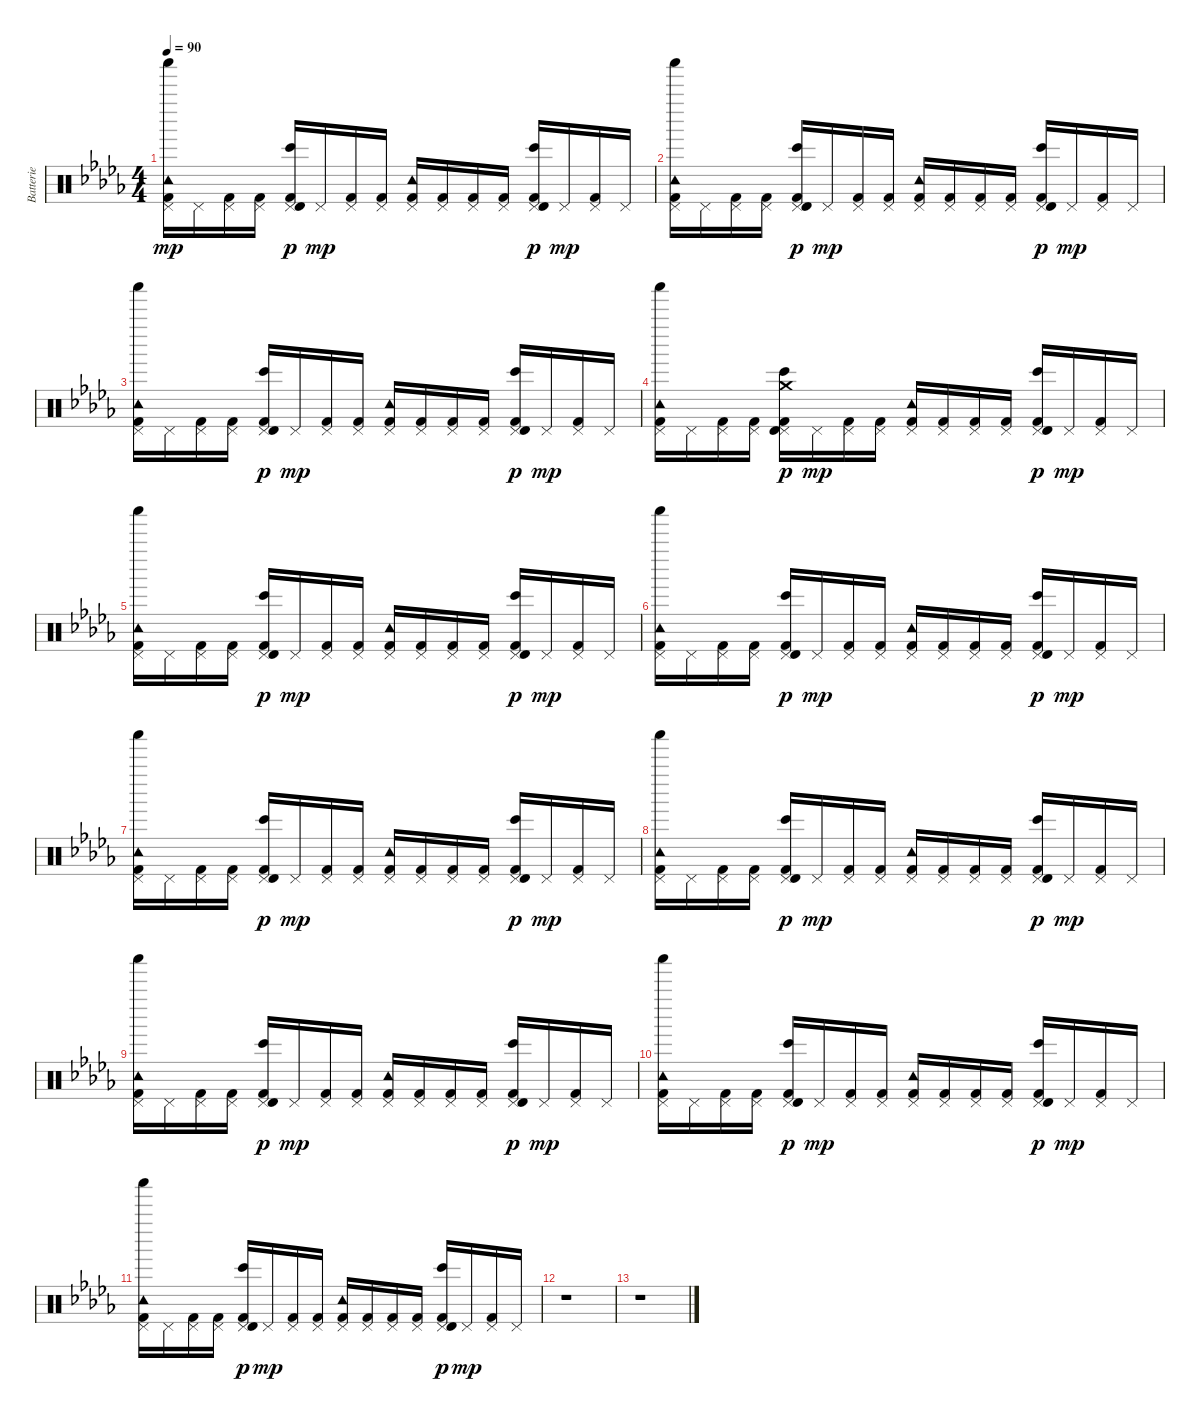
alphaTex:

\track ("Batterie" "Batterie") {instrument percussion}
\staff {score}
\articulation defaults
\ts (4 4)
\tempo 90
\clef neutral
\ks db
("Shaker (hit)" "Tambourine (hit)" "Pedal Hi-Hat (hit)" "Kick (hit) 2").16{dy mp} "Pedal Hi-Hat (hit)".16 ("Pedal Hi-Hat (hit)" "Kick (hit) 2").16 ("Pedal Hi-Hat (hit)" "Kick (hit) 2").16 ("Pedal Hi-Hat (hit)" "Bongo High (hit)" "Timbale high (hit)" "Kick (hit) 2").16{dy p} "Pedal Hi-Hat (hit)".16{dy mp} ("Pedal Hi-Hat (hit)" "Kick (hit) 2").16 ("Pedal Hi-Hat (hit)" "Kick (hit) 2").16 ("Tambourine (hit)" "Pedal Hi-Hat (hit)" "Kick (hit) 2").16 ("Pedal Hi-Hat (hit)" "Kick (hit) 2").16 ("Pedal Hi-Hat (hit)" "Kick (hit) 2").16 ("Pedal Hi-Hat (hit)" "Kick (hit) 2").16 ("Pedal Hi-Hat (hit)" "Bongo High (hit)" "Timbale high (hit)" "Kick (hit) 2").16{dy p} "Pedal Hi-Hat (hit)".16{dy mp} ("Pedal Hi-Hat (hit)" "Kick (hit) 2").16 "Pedal Hi-Hat (hit)".16 |
("Shaker (hit)" "Tambourine (hit)" "Pedal Hi-Hat (hit)" "Kick (hit) 2").16 "Pedal Hi-Hat (hit)".16 ("Pedal Hi-Hat (hit)" "Kick (hit) 2").16 ("Pedal Hi-Hat (hit)" "Kick (hit) 2").16 ("Pedal Hi-Hat (hit)" "Bongo High (hit)" "Timbale high (hit)" "Kick (hit) 2").16{dy p} "Pedal Hi-Hat (hit)".16{dy mp} ("Pedal Hi-Hat (hit)" "Kick (hit) 2").16 ("Pedal Hi-Hat (hit)" "Kick (hit) 2").16 ("Tambourine (hit)" "Pedal Hi-Hat (hit)" "Kick (hit) 2").16 ("Pedal Hi-Hat (hit)" "Kick (hit) 2").16 ("Pedal Hi-Hat (hit)" "Kick (hit) 2").16 ("Pedal Hi-Hat (hit)" "Kick (hit) 2").16 ("Pedal Hi-Hat (hit)" "Bongo High (hit)" "Timbale high (hit)" "Kick (hit) 2").16{dy p} "Pedal Hi-Hat (hit)".16{dy mp} ("Pedal Hi-Hat (hit)" "Kick (hit) 2").16 "Pedal Hi-Hat (hit)".16 |
("Shaker (hit)" "Tambourine (hit)" "Pedal Hi-Hat (hit)" "Kick (hit) 2").16 "Pedal Hi-Hat (hit)".16 ("Pedal Hi-Hat (hit)" "Kick (hit) 2").16 ("Pedal Hi-Hat (hit)" "Kick (hit) 2").16 ("Pedal Hi-Hat (hit)" "Bongo High (hit)" "Timbale high (hit)" "Kick (hit) 2").16{dy p} "Pedal Hi-Hat (hit)".16{dy mp} ("Pedal Hi-Hat (hit)" "Kick (hit) 2").16 ("Pedal Hi-Hat (hit)" "Kick (hit) 2").16 ("Tambourine (hit)" "Pedal Hi-Hat (hit)" "Kick (hit) 2").16 ("Pedal Hi-Hat (hit)" "Kick (hit) 2").16 ("Pedal Hi-Hat (hit)" "Kick (hit) 2").16 ("Pedal Hi-Hat (hit)" "Kick (hit) 2").16 ("Pedal Hi-Hat (hit)" "Bongo High (hit)" "Timbale high (hit)" "Kick (hit) 2").16{dy p} "Pedal Hi-Hat (hit)".16{dy mp} ("Pedal Hi-Hat (hit)" "Kick (hit) 2").16 "Pedal Hi-Hat (hit)".16 |
("Shaker (hit)" "Tambourine (hit)" "Pedal Hi-Hat (hit)" "Kick (hit) 2").16 "Pedal Hi-Hat (hit)".16 ("Pedal Hi-Hat (hit)" "Kick (hit) 2").16 ("Pedal Hi-Hat (hit)" "Kick (hit) 2").16 ("Crash medium (hit)" "Pedal Hi-Hat (hit)" "Bongo High (hit)" "Timbale high (hit)" "Kick (hit) 2").16{dy p} "Pedal Hi-Hat (hit)".16{dy mp} ("Pedal Hi-Hat (hit)" "Kick (hit) 2").16 ("Pedal Hi-Hat (hit)" "Kick (hit) 2").16 ("Tambourine (hit)" "Pedal Hi-Hat (hit)" "Kick (hit) 2").16 ("Pedal Hi-Hat (hit)" "Kick (hit) 2").16 ("Pedal Hi-Hat (hit)" "Kick (hit) 2").16 ("Pedal Hi-Hat (hit)" "Kick (hit) 2").16 ("Pedal Hi-Hat (hit)" "Bongo High (hit)" "Timbale high (hit)" "Kick (hit) 2").16{dy p} "Pedal Hi-Hat (hit)".16{dy mp} ("Pedal Hi-Hat (hit)" "Kick (hit) 2").16 "Pedal Hi-Hat (hit)".16 |
("Shaker (hit)" "Tambourine (hit)" "Pedal Hi-Hat (hit)" "Kick (hit) 2").16 "Pedal Hi-Hat (hit)".16 ("Pedal Hi-Hat (hit)" "Kick (hit) 2").16 ("Pedal Hi-Hat (hit)" "Kick (hit) 2").16 ("Pedal Hi-Hat (hit)" "Bongo High (hit)" "Timbale high (hit)" "Kick (hit) 2").16{dy p} "Pedal Hi-Hat (hit)".16{dy mp} ("Pedal Hi-Hat (hit)" "Kick (hit) 2").16 ("Pedal Hi-Hat (hit)" "Kick (hit) 2").16 ("Tambourine (hit)" "Pedal Hi-Hat (hit)" "Kick (hit) 2").16 ("Pedal Hi-Hat (hit)" "Kick (hit) 2").16 ("Pedal Hi-Hat (hit)" "Kick (hit) 2").16 ("Pedal Hi-Hat (hit)" "Kick (hit) 2").16 ("Pedal Hi-Hat (hit)" "Bongo High (hit)" "Timbale high (hit)" "Kick (hit) 2").16{dy p} "Pedal Hi-Hat (hit)".16{dy mp} ("Pedal Hi-Hat (hit)" "Kick (hit) 2").16 "Pedal Hi-Hat (hit)".16 |
("Shaker (hit)" "Tambourine (hit)" "Pedal Hi-Hat (hit)" "Kick (hit) 2").16 "Pedal Hi-Hat (hit)".16 ("Pedal Hi-Hat (hit)" "Kick (hit) 2").16 ("Pedal Hi-Hat (hit)" "Kick (hit) 2").16 ("Pedal Hi-Hat (hit)" "Bongo High (hit)" "Timbale high (hit)" "Kick (hit) 2").16{dy p} "Pedal Hi-Hat (hit)".16{dy mp} ("Pedal Hi-Hat (hit)" "Kick (hit) 2").16 ("Pedal Hi-Hat (hit)" "Kick (hit) 2").16 ("Tambourine (hit)" "Pedal Hi-Hat (hit)" "Kick (hit) 2").16 ("Pedal Hi-Hat (hit)" "Kick (hit) 2").16 ("Pedal Hi-Hat (hit)" "Kick (hit) 2").16 ("Pedal Hi-Hat (hit)" "Kick (hit) 2").16 ("Pedal Hi-Hat (hit)" "Bongo High (hit)" "Timbale high (hit)" "Kick (hit) 2").16{dy p} "Pedal Hi-Hat (hit)".16{dy mp} ("Pedal Hi-Hat (hit)" "Kick (hit) 2").16 "Pedal Hi-Hat (hit)".16 |
("Shaker (hit)" "Tambourine (hit)" "Pedal Hi-Hat (hit)" "Kick (hit) 2").16{volume 6} "Pedal Hi-Hat (hit)".16 ("Pedal Hi-Hat (hit)" "Kick (hit) 2").16 ("Pedal Hi-Hat (hit)" "Kick (hit) 2").16 ("Pedal Hi-Hat (hit)" "Bongo High (hit)" "Timbale high (hit)" "Kick (hit) 2").16{dy p} "Pedal Hi-Hat (hit)".16{dy mp} ("Pedal Hi-Hat (hit)" "Kick (hit) 2").16 ("Pedal Hi-Hat (hit)" "Kick (hit) 2").16 ("Tambourine (hit)" "Pedal Hi-Hat (hit)" "Kick (hit) 2").16 ("Pedal Hi-Hat (hit)" "Kick (hit) 2").16 ("Pedal Hi-Hat (hit)" "Kick (hit) 2").16 ("Pedal Hi-Hat (hit)" "Kick (hit) 2").16 ("Pedal Hi-Hat (hit)" "Bongo High (hit)" "Timbale high (hit)" "Kick (hit) 2").16{dy p} "Pedal Hi-Hat (hit)".16{dy mp} ("Pedal Hi-Hat (hit)" "Kick (hit) 2").16 "Pedal Hi-Hat (hit)".16 |
("Shaker (hit)" "Tambourine (hit)" "Pedal Hi-Hat (hit)" "Kick (hit) 2").16{volume 5} "Pedal Hi-Hat (hit)".16 ("Pedal Hi-Hat (hit)" "Kick (hit) 2").16 ("Pedal Hi-Hat (hit)" "Kick (hit) 2").16 ("Pedal Hi-Hat (hit)" "Bongo High (hit)" "Timbale high (hit)" "Kick (hit) 2").16{dy p} "Pedal Hi-Hat (hit)".16{dy mp} ("Pedal Hi-Hat (hit)" "Kick (hit) 2").16 ("Pedal Hi-Hat (hit)" "Kick (hit) 2").16 ("Tambourine (hit)" "Pedal Hi-Hat (hit)" "Kick (hit) 2").16 ("Pedal Hi-Hat (hit)" "Kick (hit) 2").16 ("Pedal Hi-Hat (hit)" "Kick (hit) 2").16 ("Pedal Hi-Hat (hit)" "Kick (hit) 2").16 ("Pedal Hi-Hat (hit)" "Bongo High (hit)" "Timbale high (hit)" "Kick (hit) 2").16{dy p} "Pedal Hi-Hat (hit)".16{dy mp} ("Pedal Hi-Hat (hit)" "Kick (hit) 2").16 "Pedal Hi-Hat (hit)".16 |
("Shaker (hit)" "Tambourine (hit)" "Pedal Hi-Hat (hit)" "Kick (hit) 2").16{volume 3} "Pedal Hi-Hat (hit)".16 ("Pedal Hi-Hat (hit)" "Kick (hit) 2").16 ("Pedal Hi-Hat (hit)" "Kick (hit) 2").16 ("Pedal Hi-Hat (hit)" "Bongo High (hit)" "Timbale high (hit)" "Kick (hit) 2").16{dy p} "Pedal Hi-Hat (hit)".16{dy mp} ("Pedal Hi-Hat (hit)" "Kick (hit) 2").16 ("Pedal Hi-Hat (hit)" "Kick (hit) 2").16 ("Tambourine (hit)" "Pedal Hi-Hat (hit)" "Kick (hit) 2").16 ("Pedal Hi-Hat (hit)" "Kick (hit) 2").16 ("Pedal Hi-Hat (hit)" "Kick (hit) 2").16 ("Pedal Hi-Hat (hit)" "Kick (hit) 2").16 ("Pedal Hi-Hat (hit)" "Bongo High (hit)" "Timbale high (hit)" "Kick (hit) 2").16{dy p} "Pedal Hi-Hat (hit)".16{dy mp} ("Pedal Hi-Hat (hit)" "Kick (hit) 2").16 "Pedal Hi-Hat (hit)".16 |
("Shaker (hit)" "Tambourine (hit)" "Pedal Hi-Hat (hit)" "Kick (hit) 2").16{volume 2} "Pedal Hi-Hat (hit)".16 ("Pedal Hi-Hat (hit)" "Kick (hit) 2").16 ("Pedal Hi-Hat (hit)" "Kick (hit) 2").16 ("Pedal Hi-Hat (hit)" "Bongo High (hit)" "Timbale high (hit)" "Kick (hit) 2").16{dy p} "Pedal Hi-Hat (hit)".16{dy mp} ("Pedal Hi-Hat (hit)" "Kick (hit) 2").16 ("Pedal Hi-Hat (hit)" "Kick (hit) 2").16 ("Tambourine (hit)" "Pedal Hi-Hat (hit)" "Kick (hit) 2").16 ("Pedal Hi-Hat (hit)" "Kick (hit) 2").16 ("Pedal Hi-Hat (hit)" "Kick (hit) 2").16 ("Pedal Hi-Hat (hit)" "Kick (hit) 2").16 ("Pedal Hi-Hat (hit)" "Bongo High (hit)" "Timbale high (hit)" "Kick (hit) 2").16{dy p} "Pedal Hi-Hat (hit)".16{dy mp} ("Pedal Hi-Hat (hit)" "Kick (hit) 2").16 "Pedal Hi-Hat (hit)".16 |
("Shaker (hit)" "Tambourine (hit)" "Pedal Hi-Hat (hit)" "Kick (hit) 2").16{volume 1} "Pedal Hi-Hat (hit)".16 ("Pedal Hi-Hat (hit)" "Kick (hit) 2").16 ("Pedal Hi-Hat (hit)" "Kick (hit) 2").16 ("Pedal Hi-Hat (hit)" "Bongo High (hit)" "Timbale high (hit)" "Kick (hit) 2").16{dy p} "Pedal Hi-Hat (hit)".16{dy mp} ("Pedal Hi-Hat (hit)" "Kick (hit) 2").16 ("Pedal Hi-Hat (hit)" "Kick (hit) 2").16 ("Tambourine (hit)" "Pedal Hi-Hat (hit)" "Kick (hit) 2").16 ("Pedal Hi-Hat (hit)" "Kick (hit) 2").16 ("Pedal Hi-Hat (hit)" "Kick (hit) 2").16 ("Pedal Hi-Hat (hit)" "Kick (hit) 2").16 ("Pedal Hi-Hat (hit)" "Bongo High (hit)" "Timbale high (hit)" "Kick (hit) 2").16{dy p} "Pedal Hi-Hat (hit)".16{dy mp} ("Pedal Hi-Hat (hit)" "Kick (hit) 2").16 "Pedal Hi-Hat (hit)".16 |
r.1 |
r.1
